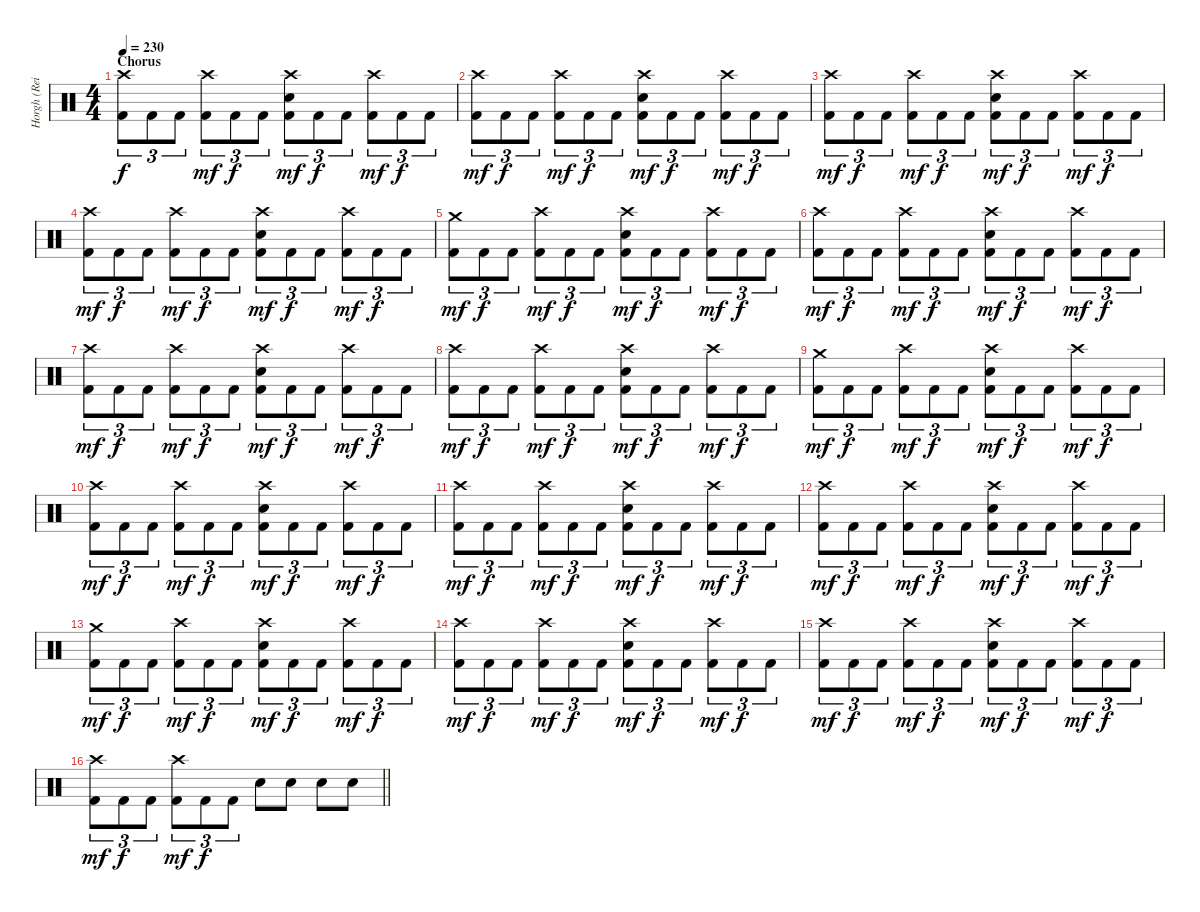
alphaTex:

\track ("Horgh (Reidar Horghagen)" "Horgh (Rei") {instrument percussion}
\staff {score}
\articulation defaults
\ts (4 4)
\section ("" "Chorus")
\tempo 230
\clef neutral
\ks c
("Crash high (hit)" "Kick (hit) 2").8{tu (3 2) dy f} "Kick (hit) 2".8{tu (3 2)} "Kick (hit) 2".8{tu (3 2)} ("Crash high (hit)" "Kick (hit) 2").8{tu (3 2) dy mf} "Kick (hit) 2".8{tu (3 2) dy f} "Kick (hit) 2".8{tu (3 2)} ("Crash high (hit)" "Snare (hit) 2" "Kick (hit) 2").8{tu (3 2) dy mf} "Kick (hit) 2".8{tu (3 2) dy f} "Kick (hit) 2".8{tu (3 2)} ("Crash high (hit)" "Kick (hit) 2").8{tu (3 2) dy mf} "Kick (hit) 2".8{tu (3 2) dy f} "Kick (hit) 2".8{tu (3 2)} |
("Crash high (hit)" "Kick (hit) 2").8{tu (3 2) dy mf} "Kick (hit) 2".8{tu (3 2) dy f} "Kick (hit) 2".8{tu (3 2)} ("Crash high (hit)" "Kick (hit) 2").8{tu (3 2) dy mf} "Kick (hit) 2".8{tu (3 2) dy f} "Kick (hit) 2".8{tu (3 2)} ("Crash high (hit)" "Snare (hit) 2" "Kick (hit) 2").8{tu (3 2) dy mf} "Kick (hit) 2".8{tu (3 2) dy f} "Kick (hit) 2".8{tu (3 2)} ("Crash high (hit)" "Kick (hit) 2").8{tu (3 2) dy mf} "Kick (hit) 2".8{tu (3 2) dy f} "Kick (hit) 2".8{tu (3 2)} |
("Crash high (hit)" "Kick (hit) 2").8{tu (3 2) dy mf} "Kick (hit) 2".8{tu (3 2) dy f} "Kick (hit) 2".8{tu (3 2)} ("Crash high (hit)" "Kick (hit) 2").8{tu (3 2) dy mf} "Kick (hit) 2".8{tu (3 2) dy f} "Kick (hit) 2".8{tu (3 2)} ("Crash high (hit)" "Snare (hit) 2" "Kick (hit) 2").8{tu (3 2) dy mf} "Kick (hit) 2".8{tu (3 2) dy f} "Kick (hit) 2".8{tu (3 2)} ("Crash high (hit)" "Kick (hit) 2").8{tu (3 2) dy mf} "Kick (hit) 2".8{tu (3 2) dy f} "Kick (hit) 2".8{tu (3 2)} |
("Crash high (hit)" "Kick (hit) 2").8{tu (3 2) dy mf} "Kick (hit) 2".8{tu (3 2) dy f} "Kick (hit) 2".8{tu (3 2)} ("Crash high (hit)" "Kick (hit) 2").8{tu (3 2) dy mf} "Kick (hit) 2".8{tu (3 2) dy f} "Kick (hit) 2".8{tu (3 2)} ("Crash high (hit)" "Snare (hit) 2" "Kick (hit) 2").8{tu (3 2) dy mf} "Kick (hit) 2".8{tu (3 2) dy f} "Kick (hit) 2".8{tu (3 2)} ("Crash high (hit)" "Kick (hit) 2").8{tu (3 2) dy mf} "Kick (hit) 2".8{tu (3 2) dy f} "Kick (hit) 2".8{tu (3 2)} |
("Crash medium (hit)" "Kick (hit) 2").8{tu (3 2) dy mf} "Kick (hit) 2".8{tu (3 2) dy f} "Kick (hit) 2".8{tu (3 2)} ("Crash high (hit)" "Kick (hit) 2").8{tu (3 2) dy mf} "Kick (hit) 2".8{tu (3 2) dy f} "Kick (hit) 2".8{tu (3 2)} ("Crash high (hit)" "Snare (hit) 2" "Kick (hit) 2").8{tu (3 2) dy mf} "Kick (hit) 2".8{tu (3 2) dy f} "Kick (hit) 2".8{tu (3 2)} ("Crash high (hit)" "Kick (hit) 2").8{tu (3 2) dy mf} "Kick (hit) 2".8{tu (3 2) dy f} "Kick (hit) 2".8{tu (3 2)} |
("Crash high (hit)" "Kick (hit) 2").8{tu (3 2) dy mf} "Kick (hit) 2".8{tu (3 2) dy f} "Kick (hit) 2".8{tu (3 2)} ("Crash high (hit)" "Kick (hit) 2").8{tu (3 2) dy mf} "Kick (hit) 2".8{tu (3 2) dy f} "Kick (hit) 2".8{tu (3 2)} ("Crash high (hit)" "Snare (hit) 2" "Kick (hit) 2").8{tu (3 2) dy mf} "Kick (hit) 2".8{tu (3 2) dy f} "Kick (hit) 2".8{tu (3 2)} ("Crash high (hit)" "Kick (hit) 2").8{tu (3 2) dy mf} "Kick (hit) 2".8{tu (3 2) dy f} "Kick (hit) 2".8{tu (3 2)} |
("Crash high (hit)" "Kick (hit) 2").8{tu (3 2) dy mf} "Kick (hit) 2".8{tu (3 2) dy f} "Kick (hit) 2".8{tu (3 2)} ("Crash high (hit)" "Kick (hit) 2").8{tu (3 2) dy mf} "Kick (hit) 2".8{tu (3 2) dy f} "Kick (hit) 2".8{tu (3 2)} ("Crash high (hit)" "Snare (hit) 2" "Kick (hit) 2").8{tu (3 2) dy mf} "Kick (hit) 2".8{tu (3 2) dy f} "Kick (hit) 2".8{tu (3 2)} ("Crash high (hit)" "Kick (hit) 2").8{tu (3 2) dy mf} "Kick (hit) 2".8{tu (3 2) dy f} "Kick (hit) 2".8{tu (3 2)} |
("Crash high (hit)" "Kick (hit) 2").8{tu (3 2) dy mf} "Kick (hit) 2".8{tu (3 2) dy f} "Kick (hit) 2".8{tu (3 2)} ("Crash high (hit)" "Kick (hit) 2").8{tu (3 2) dy mf} "Kick (hit) 2".8{tu (3 2) dy f} "Kick (hit) 2".8{tu (3 2)} ("Crash high (hit)" "Snare (hit) 2" "Kick (hit) 2").8{tu (3 2) dy mf} "Kick (hit) 2".8{tu (3 2) dy f} "Kick (hit) 2".8{tu (3 2)} ("Crash high (hit)" "Kick (hit) 2").8{tu (3 2) dy mf} "Kick (hit) 2".8{tu (3 2) dy f} "Kick (hit) 2".8{tu (3 2)} |
("Crash medium (hit)" "Kick (hit) 2").8{tu (3 2) dy mf} "Kick (hit) 2".8{tu (3 2) dy f} "Kick (hit) 2".8{tu (3 2)} ("Crash high (hit)" "Kick (hit) 2").8{tu (3 2) dy mf} "Kick (hit) 2".8{tu (3 2) dy f} "Kick (hit) 2".8{tu (3 2)} ("Crash high (hit)" "Snare (hit) 2" "Kick (hit) 2").8{tu (3 2) dy mf} "Kick (hit) 2".8{tu (3 2) dy f} "Kick (hit) 2".8{tu (3 2)} ("Crash high (hit)" "Kick (hit) 2").8{tu (3 2) dy mf} "Kick (hit) 2".8{tu (3 2) dy f} "Kick (hit) 2".8{tu (3 2)} |
("Crash high (hit)" "Kick (hit) 2").8{tu (3 2) dy mf} "Kick (hit) 2".8{tu (3 2) dy f} "Kick (hit) 2".8{tu (3 2)} ("Crash high (hit)" "Kick (hit) 2").8{tu (3 2) dy mf} "Kick (hit) 2".8{tu (3 2) dy f} "Kick (hit) 2".8{tu (3 2)} ("Crash high (hit)" "Snare (hit) 2" "Kick (hit) 2").8{tu (3 2) dy mf} "Kick (hit) 2".8{tu (3 2) dy f} "Kick (hit) 2".8{tu (3 2)} ("Crash high (hit)" "Kick (hit) 2").8{tu (3 2) dy mf} "Kick (hit) 2".8{tu (3 2) dy f} "Kick (hit) 2".8{tu (3 2)} |
("Crash high (hit)" "Kick (hit) 2").8{tu (3 2) dy mf} "Kick (hit) 2".8{tu (3 2) dy f} "Kick (hit) 2".8{tu (3 2)} ("Crash high (hit)" "Kick (hit) 2").8{tu (3 2) dy mf} "Kick (hit) 2".8{tu (3 2) dy f} "Kick (hit) 2".8{tu (3 2)} ("Crash high (hit)" "Snare (hit) 2" "Kick (hit) 2").8{tu (3 2) dy mf} "Kick (hit) 2".8{tu (3 2) dy f} "Kick (hit) 2".8{tu (3 2)} ("Crash high (hit)" "Kick (hit) 2").8{tu (3 2) dy mf} "Kick (hit) 2".8{tu (3 2) dy f} "Kick (hit) 2".8{tu (3 2)} |
("Crash high (hit)" "Kick (hit) 2").8{tu (3 2) dy mf} "Kick (hit) 2".8{tu (3 2) dy f} "Kick (hit) 2".8{tu (3 2)} ("Crash high (hit)" "Kick (hit) 2").8{tu (3 2) dy mf} "Kick (hit) 2".8{tu (3 2) dy f} "Kick (hit) 2".8{tu (3 2)} ("Crash high (hit)" "Snare (hit) 2" "Kick (hit) 2").8{tu (3 2) dy mf} "Kick (hit) 2".8{tu (3 2) dy f} "Kick (hit) 2".8{tu (3 2)} ("Crash high (hit)" "Kick (hit) 2").8{tu (3 2) dy mf} "Kick (hit) 2".8{tu (3 2) dy f} "Kick (hit) 2".8{tu (3 2)} |
("Crash medium (hit)" "Kick (hit) 2").8{tu (3 2) dy mf} "Kick (hit) 2".8{tu (3 2) dy f} "Kick (hit) 2".8{tu (3 2)} ("Crash high (hit)" "Kick (hit) 2").8{tu (3 2) dy mf} "Kick (hit) 2".8{tu (3 2) dy f} "Kick (hit) 2".8{tu (3 2)} ("Crash high (hit)" "Snare (hit) 2" "Kick (hit) 2").8{tu (3 2) dy mf} "Kick (hit) 2".8{tu (3 2) dy f} "Kick (hit) 2".8{tu (3 2)} ("Crash high (hit)" "Kick (hit) 2").8{tu (3 2) dy mf} "Kick (hit) 2".8{tu (3 2) dy f} "Kick (hit) 2".8{tu (3 2)} |
("Crash high (hit)" "Kick (hit) 2").8{tu (3 2) dy mf} "Kick (hit) 2".8{tu (3 2) dy f} "Kick (hit) 2".8{tu (3 2)} ("Crash high (hit)" "Kick (hit) 2").8{tu (3 2) dy mf} "Kick (hit) 2".8{tu (3 2) dy f} "Kick (hit) 2".8{tu (3 2)} ("Crash high (hit)" "Snare (hit) 2" "Kick (hit) 2").8{tu (3 2) dy mf} "Kick (hit) 2".8{tu (3 2) dy f} "Kick (hit) 2".8{tu (3 2)} ("Crash high (hit)" "Kick (hit) 2").8{tu (3 2) dy mf} "Kick (hit) 2".8{tu (3 2) dy f} "Kick (hit) 2".8{tu (3 2)} |
("Crash high (hit)" "Kick (hit) 2").8{tu (3 2) dy mf} "Kick (hit) 2".8{tu (3 2) dy f} "Kick (hit) 2".8{tu (3 2)} ("Crash high (hit)" "Kick (hit) 2").8{tu (3 2) dy mf} "Kick (hit) 2".8{tu (3 2) dy f} "Kick (hit) 2".8{tu (3 2)} ("Crash high (hit)" "Snare (hit) 2" "Kick (hit) 2").8{tu (3 2) dy mf} "Kick (hit) 2".8{tu (3 2) dy f} "Kick (hit) 2".8{tu (3 2)} ("Crash high (hit)" "Kick (hit) 2").8{tu (3 2) dy mf} "Kick (hit) 2".8{tu (3 2) dy f} "Kick (hit) 2".8{tu (3 2)} |
\barLineRight lightlight
("Crash high (hit)" "Kick (hit) 2").8{tu (3 2) dy mf} "Kick (hit) 2".8{tu (3 2) dy f} "Kick (hit) 2".8{tu (3 2)} ("Crash high (hit)" "Kick (hit) 2").8{tu (3 2) dy mf} "Kick (hit) 2".8{tu (3 2) dy f} "Kick (hit) 2".8{tu (3 2)} "Snare (hit) 2".8 "Snare (hit) 2".8 "Snare (hit) 2".8 "Snare (hit) 2".8
